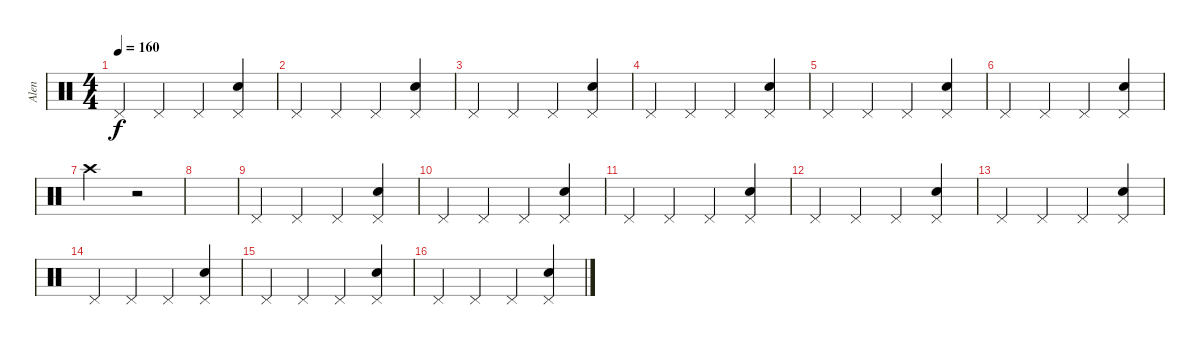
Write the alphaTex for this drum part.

\track ("Alen" "Alen") {instrument percussion}
\staff {score}
\articulation defaults
\ts (4 4)
\tempo 160
\clef neutral
\ks c "Pedal Hi-Hat (hit)".4{dy f} "Pedal Hi-Hat (hit)".4 "Pedal Hi-Hat (hit)".4
("Pedal Hi-Hat (hit)" "Snare (hit) 2").4 |
"Pedal Hi-Hat (hit)".4 "Pedal Hi-Hat (hit)".4 "Pedal Hi-Hat (hit)".4 ("Pedal Hi-Hat (hit)" "Snare (hit) 2").4 |
"Pedal Hi-Hat (hit)".4 "Pedal Hi-Hat (hit)".4 "Pedal Hi-Hat (hit)".4 ("Pedal Hi-Hat (hit)" "Snare (hit) 2").4 |
"Pedal Hi-Hat (hit)".4 "Pedal Hi-Hat (hit)".4 "Pedal Hi-Hat (hit)".4 ("Pedal Hi-Hat (hit)" "Snare (hit) 2").4 |
"Pedal Hi-Hat (hit)".4 "Pedal Hi-Hat (hit)".4 "Pedal Hi-Hat (hit)".4 ("Pedal Hi-Hat (hit)" "Snare (hit) 2").4 |
"Pedal Hi-Hat (hit)".4 "Pedal Hi-Hat (hit)".4 "Pedal Hi-Hat (hit)".4 ("Pedal Hi-Hat (hit)" "Snare (hit) 2").4 |
"Crash high (hit)".2 r.2 |
|
"Pedal Hi-Hat (hit)".4 "Pedal Hi-Hat (hit)".4 "Pedal Hi-Hat (hit)".4 ("Pedal Hi-Hat (hit)" "Snare (hit) 2").4 |
"Pedal Hi-Hat (hit)".4 "Pedal Hi-Hat (hit)".4 "Pedal Hi-Hat (hit)".4 ("Pedal Hi-Hat (hit)" "Snare (hit) 2").4 |
"Pedal Hi-Hat (hit)".4 "Pedal Hi-Hat (hit)".4 "Pedal Hi-Hat (hit)".4 ("Pedal Hi-Hat (hit)" "Snare (hit) 2").4 |
"Pedal Hi-Hat (hit)".4 "Pedal Hi-Hat (hit)".4 "Pedal Hi-Hat (hit)".4 ("Pedal Hi-Hat (hit)" "Snare (hit) 2").4 |
"Pedal Hi-Hat (hit)".4 "Pedal Hi-Hat (hit)".4 "Pedal Hi-Hat (hit)".4 ("Pedal Hi-Hat (hit)" "Snare (hit) 2").4 |
"Pedal Hi-Hat (hit)".4 "Pedal Hi-Hat (hit)".4 "Pedal Hi-Hat (hit)".4 ("Pedal Hi-Hat (hit)" "Snare (hit) 2").4 |
"Pedal Hi-Hat (hit)".4 "Pedal Hi-Hat (hit)".4 "Pedal Hi-Hat (hit)".4 ("Pedal Hi-Hat (hit)" "Snare (hit) 2").4 |
"Pedal Hi-Hat (hit)".4 "Pedal Hi-Hat (hit)".4 "Pedal Hi-Hat (hit)".4 ("Pedal Hi-Hat (hit)" "Snare (hit) 2").4
